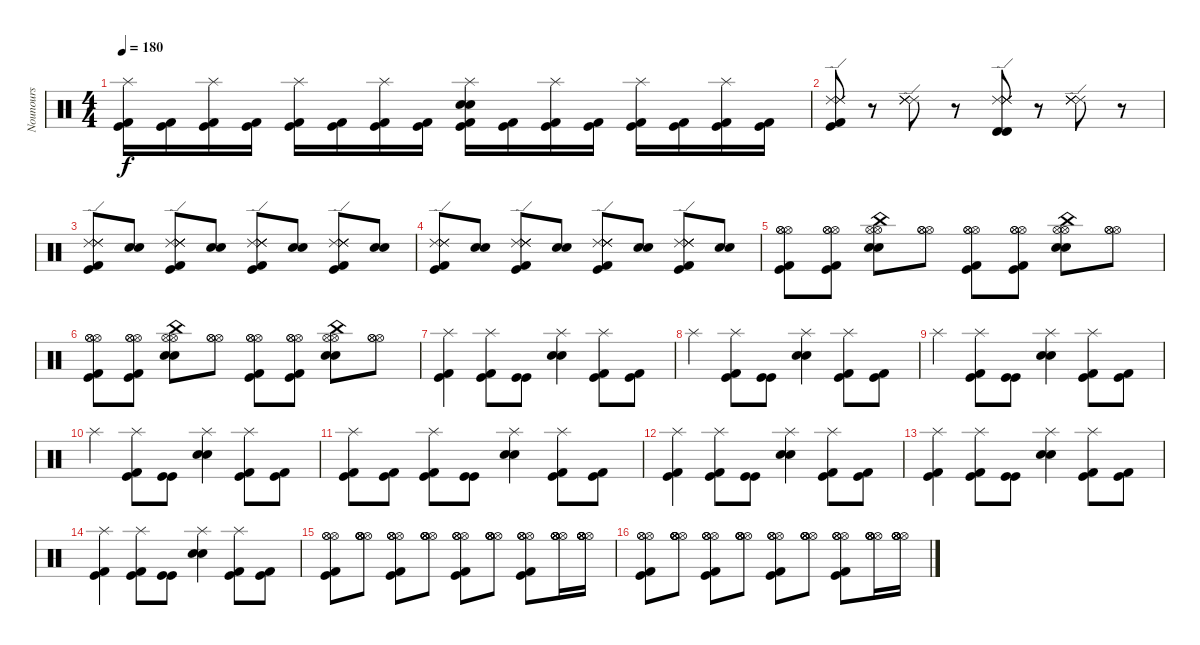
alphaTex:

\track ("Nounours" "Nounours") {instrument percussion}
\staff {score}
\articulation defaults
\ts (4 4)
\tempo 180
\clef neutral
\ks c
("Splash (hit)" "Kick (hit) 2" "Kick (hit)").16{dy f} ("Kick (hit)" "Kick (hit) 2").16 ("Splash (hit)" "Kick (hit)" "Kick (hit) 2").16 ("Kick (hit) 2" "Kick (hit)").16 ("Splash (hit)" "Kick (hit) 2" "Kick (hit)").16 ("Kick (hit) 2" "Kick (hit)").16 ("Splash (hit)" "Kick (hit)" "Kick (hit) 2").16 ("Kick (hit)" "Kick (hit) 2").16 ("Splash (hit)" "Electric Snare (hit)" "Snare (hit) 2" "Kick (hit)" "Kick (hit) 2").16 ("Kick (hit)" "Kick (hit) 2").16 ("Splash (hit)" "Kick (hit) 2" "Kick (hit)").16 ("Kick (hit)" "Kick (hit) 2").16 ("Splash (hit)" "Kick (hit) 2" "Kick (hit)").16 ("Kick (hit) 2" "Kick (hit)").16 ("Splash (hit)" "Kick (hit)" "Kick (hit) 2").16 ("Kick (hit)" "Kick (hit) 2").16 |
("Ride (edge) 2" "Ride (edge) 2" "Ride (edge) 2" "Kick (hit) 2" "Kick (hit)").8 r.8 ("Ride (edge) 2" "Ride (edge) 2" "Ride (edge) 2" "Ride (edge) 2").8 r.8 ("Ride (edge) 2" "Ride (edge) 2" "Timbale high (hit)" "Timbale high (hit)" "Ride (edge) 2" "Ride (edge) 2").8 r.8 ("Ride (edge) 2" "Ride (edge) 2" "Ride (edge) 2" "Ride (edge) 2").8 r.8 |
("Ride (edge) 2" "Ride (edge) 2" "Ride (edge) 2" "Kick (hit) 2" "Kick (hit)").8 ("Snare (hit) 2" "Electric Snare (hit)").8 ("Ride (edge) 2" "Ride (edge) 2" "Ride (edge) 2" "Ride (edge) 2" "Kick (hit) 2" "Kick (hit)").8 ("Snare (hit) 2" "Electric Snare (hit)").8 ("Ride (edge) 2" "Ride (edge) 2" "Kick (hit) 2" "Kick (hit)" "Ride (edge) 2" "Ride (edge) 2").8 ("Electric Snare (hit)" "Snare (hit) 2").8 ("Ride (edge) 2" "Ride (edge) 2" "Ride (edge) 2" "Ride (edge) 2" "Kick (hit)" "Kick (hit) 2").8 ("Snare (hit) 2" "Electric Snare (hit)").8 |
("Ride (edge) 2" "Ride (edge) 2" "Ride (edge) 2" "Kick (hit) 2" "Kick (hit)").8 ("Snare (hit) 2" "Electric Snare (hit)").8 ("Ride (edge) 2" "Ride (edge) 2" "Ride (edge) 2" "Ride (edge) 2" "Kick (hit) 2" "Kick (hit)").8 ("Snare (hit) 2" "Electric Snare (hit)").8 ("Ride (edge) 2" "Ride (edge) 2" "Kick (hit) 2" "Kick (hit)" "Ride (edge) 2" "Ride (edge) 2").8 ("Electric Snare (hit)" "Snare (hit) 2").8 ("Ride (edge) 2" "Ride (edge) 2" "Ride (edge) 2" "Ride (edge) 2" "Kick (hit)" "Kick (hit) 2").8 ("Snare (hit) 2" "Electric Snare (hit)").8 |
("Hi-Hat (open)" "Hi-Hat (open)" "Hi-Hat (open)" "Kick (hit) 2" "Kick (hit)").8 ("Hi-Hat (open)" "Hi-Hat (open)" "Hi-Hat (open)" "Kick (hit)" "Kick (hit) 2").8 ("China (hit)" "Hi-Hat (open)" "Hi-Hat (open)" "Electric Snare (hit)" "Snare (hit) 2").8 ("Hi-Hat (open)" "Hi-Hat (open)" "Hi-Hat (open)").8 ("Hi-Hat (open)" "Hi-Hat (open)" "Hi-Hat (open)" "Kick (hit) 2" "Kick (hit)").8 ("Hi-Hat (open)" "Hi-Hat (open)" "Hi-Hat (open)" "Kick (hit) 2" "Kick (hit)").8 ("China (hit)" "Hi-Hat (open)" "Hi-Hat (open)" "Electric Snare (hit)" "Snare (hit) 2").8 ("Hi-Hat (open)" "Hi-Hat (open)" "Hi-Hat (open)").8 |
("Hi-Hat (open)" "Hi-Hat (open)" "Hi-Hat (open)" "Kick (hit) 2" "Kick (hit)").8 ("Hi-Hat (open)" "Hi-Hat (open)" "Hi-Hat (open)" "Kick (hit)" "Kick (hit) 2").8 ("China (hit)" "Hi-Hat (open)" "Hi-Hat (open)" "Electric Snare (hit)" "Snare (hit) 2").8 ("Hi-Hat (open)" "Hi-Hat (open)" "Hi-Hat (open)").8 ("Hi-Hat (open)" "Hi-Hat (open)" "Hi-Hat (open)" "Kick (hit) 2" "Kick (hit)").8 ("Hi-Hat (open)" "Hi-Hat (open)" "Hi-Hat (open)" "Kick (hit) 2" "Kick (hit)").8 ("China (hit)" "Hi-Hat (open)" "Hi-Hat (open)" "Electric Snare (hit)" "Snare (hit) 2").8 ("Hi-Hat (open)" "Hi-Hat (open)" "Hi-Hat (open)").8 |
("Splash (hit)" "Kick (hit) 2" "Kick (hit)").4 ("Splash (hit)" "Kick (hit)" "Kick (hit) 2").8 ("Kick (hit)" "Kick (hit)").8 ("Splash (hit)" "Snare (hit) 2" "Electric Snare (hit)").4 ("Splash (hit)" "Kick (hit) 2" "Kick (hit)").8 ("Kick (hit) 2" "Kick (hit)").8 |
"Splash (hit)".4 ("Splash (hit)" "Kick (hit)" "Kick (hit) 2").8 ("Kick (hit)" "Kick (hit)").8 ("Splash (hit)" "Snare (hit) 2" "Electric Snare (hit)").4 ("Splash (hit)" "Kick (hit) 2" "Kick (hit)").8 ("Kick (hit) 2" "Kick (hit)").8 |
"Splash (hit)".4 ("Splash (hit)" "Kick (hit)" "Kick (hit) 2").8 ("Kick (hit)" "Kick (hit)").8 ("Splash (hit)" "Snare (hit) 2" "Electric Snare (hit)").4 ("Splash (hit)" "Kick (hit) 2" "Kick (hit)").8 ("Kick (hit) 2" "Kick (hit)").8 |
"Splash (hit)".4 ("Splash (hit)" "Kick (hit)" "Kick (hit) 2").8 ("Kick (hit)" "Kick (hit)").8 ("Splash (hit)" "Snare (hit) 2" "Electric Snare (hit)").4 ("Splash (hit)" "Kick (hit) 2" "Kick (hit)").8 ("Kick (hit) 2" "Kick (hit)").8 |
("Splash (hit)" "Kick (hit) 2" "Kick (hit)").8 ("Kick (hit) 2" "Kick (hit)").8 ("Splash (hit)" "Kick (hit)" "Kick (hit) 2").8 ("Kick (hit)" "Kick (hit)").8 ("Splash (hit)" "Snare (hit) 2" "Electric Snare (hit)").4 ("Splash (hit)" "Kick (hit) 2" "Kick (hit)").8 ("Kick (hit) 2" "Kick (hit)").8 |
("Splash (hit)" "Kick (hit) 2" "Kick (hit)").4 ("Splash (hit)" "Kick (hit)" "Kick (hit) 2").8 ("Kick (hit)" "Kick (hit)").8 ("Splash (hit)" "Snare (hit) 2" "Electric Snare (hit)").4 ("Splash (hit)" "Kick (hit) 2" "Kick (hit)").8 ("Kick (hit) 2" "Kick (hit)").8 |
("Splash (hit)" "Kick (hit) 2" "Kick (hit)").4 ("Splash (hit)" "Kick (hit)" "Kick (hit) 2").8 ("Kick (hit)" "Kick (hit)").8 ("Splash (hit)" "Snare (hit) 2" "Electric Snare (hit)").4 ("Splash (hit)" "Kick (hit) 2" "Kick (hit)").8 ("Kick (hit) 2" "Kick (hit)").8 |
("Splash (hit)" "Kick (hit) 2" "Kick (hit)").4 ("Splash (hit)" "Kick (hit)" "Kick (hit) 2").8 ("Kick (hit)" "Kick (hit)").8 ("Splash (hit)" "Snare (hit) 2" "Electric Snare (hit)").4 ("Splash (hit)" "Kick (hit) 2" "Kick (hit)").8 ("Kick (hit) 2" "Kick (hit)").8 |
("Hi-Hat (open)" "Hi-Hat (open)" "Hi-Hat (open)" "Kick (hit) 2" "Kick (hit)").8 ("Hi-Hat (open)" "Hi-Hat (open)" "Hi-Hat (open)" "Hi-Hat (open)" "Hi-Hat (open)" "Hi-Hat (open)").8 ("Hi-Hat (open)" "Hi-Hat (open)" "Hi-Hat (open)" "Hi-Hat (open)" "Kick (hit) 2" "Kick (hit)").8 ("Hi-Hat (open)" "Hi-Hat (open)" "Hi-Hat (open)" "Hi-Hat (open)" "Hi-Hat (open)" "Hi-Hat (open)").8 ("Hi-Hat (open)" "Hi-Hat (open)" "Hi-Hat (open)" "Hi-Hat (open)" "Kick (hit)" "Kick (hit) 2").8 ("Hi-Hat (open)" "Hi-Hat (open)" "Hi-Hat (open)" "Hi-Hat (open)" "Hi-Hat (open)" "Hi-Hat (open)").8 ("Hi-Hat (open)" "Hi-Hat (open)" "Hi-Hat (open)" "Hi-Hat (open)" "Kick (hit) 2" "Kick (hit)").8 ("Hi-Hat (open)" "Hi-Hat (open)" "Hi-Hat (open)" "Hi-Hat (open)" "Hi-Hat (open)" "Hi-Hat (open)").16 ("Hi-Hat (open)" "Hi-Hat (open)" "Hi-Hat (open)" "Hi-Hat (open)" "Hi-Hat (open)" "Hi-Hat (open)").16 |
("Hi-Hat (open)" "Hi-Hat (open)" "Hi-Hat (open)" "Kick (hit) 2" "Kick (hit)").8 ("Hi-Hat (open)" "Hi-Hat (open)" "Hi-Hat (open)" "Hi-Hat (open)" "Hi-Hat (open)" "Hi-Hat (open)").8 ("Hi-Hat (open)" "Hi-Hat (open)" "Hi-Hat (open)" "Hi-Hat (open)" "Kick (hit) 2" "Kick (hit)").8 ("Hi-Hat (open)" "Hi-Hat (open)" "Hi-Hat (open)" "Hi-Hat (open)" "Hi-Hat (open)" "Hi-Hat (open)").8 ("Hi-Hat (open)" "Hi-Hat (open)" "Hi-Hat (open)" "Hi-Hat (open)" "Kick (hit)" "Kick (hit) 2").8 ("Hi-Hat (open)" "Hi-Hat (open)" "Hi-Hat (open)" "Hi-Hat (open)" "Hi-Hat (open)" "Hi-Hat (open)").8 ("Hi-Hat (open)" "Hi-Hat (open)" "Hi-Hat (open)" "Hi-Hat (open)" "Kick (hit) 2" "Kick (hit)").8 ("Hi-Hat (open)" "Hi-Hat (open)" "Hi-Hat (open)" "Hi-Hat (open)" "Hi-Hat (open)" "Hi-Hat (open)").16 ("Hi-Hat (open)" "Hi-Hat (open)" "Hi-Hat (open)" "Hi-Hat (open)" "Hi-Hat (open)" "Hi-Hat (open)").16
